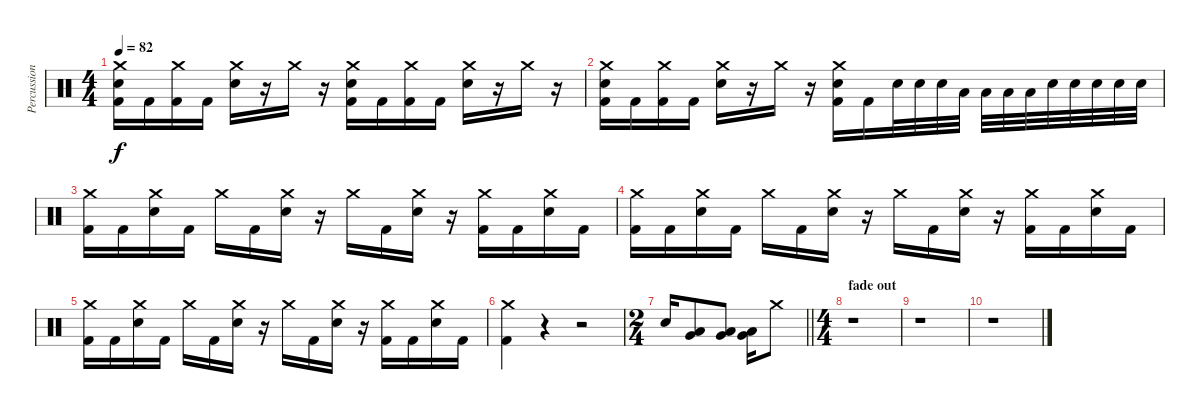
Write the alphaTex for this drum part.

\track ("Percussion" "Percussion") {instrument percussion}
\staff {score}
\articulation defaults
\ts (4 4)
\tempo 82
\clef neutral
\ks c
("Crash medium (hit)" "Electric Snare (hit)" "Kick (hit) 2").16{dy f} "Kick (hit) 2".16 ("Crash medium (hit)" "Kick (hit) 2").16 "Kick (hit) 2".16 ("Crash medium (hit)" "Electric Snare (hit)").16 r.16 "Crash medium (hit)".16 r.16 ("Crash medium (hit)" "Electric Snare (hit)" "Kick (hit) 2").16 "Kick (hit) 2".16 ("Crash medium (hit)" "Kick (hit) 2").16 "Kick (hit) 2".16 ("Crash medium (hit)" "Electric Snare (hit)").16 r.16 "Crash medium (hit)".16 r.16 |
("Crash medium (hit)" "Electric Snare (hit)" "Kick (hit) 2").16 "Kick (hit) 2".16 ("Crash medium (hit)" "Kick (hit) 2").16 "Kick (hit) 2".16 ("Crash medium (hit)" "Electric Snare (hit)").16 r.16 "Crash medium (hit)".16 r.16 ("Crash medium (hit)" "Electric Snare (hit)" "Kick (hit) 2").16 "Kick (hit) 2".16 "Electric Snare (hit)".32 "Electric Snare (hit)".32 "Electric Snare (hit)".32 "Low Tom (hit)".32 "Low Tom (hit)".32 "Low Tom (hit)".32 "Low Tom (hit)".32 "Electric Snare (hit)".32 "Electric Snare (hit)".32 "Electric Snare (hit)".32 "Electric Snare (hit)".32 "Electric Snare (hit)".32 |
("Crash medium (hit)" "Kick (hit) 2").16 "Kick (hit) 2".16 ("Crash medium (hit)" "Electric Snare (hit)").16 "Kick (hit) 2".16 "Crash medium (hit)".16 "Kick (hit) 2".16 ("Crash medium (hit)" "Electric Snare (hit)").16 r.16 "Crash medium (hit)".16 "Kick (hit) 2".16 ("Crash medium (hit)" "Electric Snare (hit)").16 r.16 ("Crash medium (hit)" "Kick (hit) 2").16 "Kick (hit) 2".16 ("Crash medium (hit)" "Electric Snare (hit)").16 "Kick (hit) 2".16 |
("Crash medium (hit)" "Kick (hit) 2").16 "Kick (hit) 2".16 ("Crash medium (hit)" "Electric Snare (hit)").16 "Kick (hit) 2".16 "Crash medium (hit)".16 "Kick (hit) 2".16 ("Crash medium (hit)" "Electric Snare (hit)").16 r.16 "Crash medium (hit)".16 "Kick (hit) 2".16 ("Crash medium (hit)" "Electric Snare (hit)").16 r.16 ("Crash medium (hit)" "Kick (hit) 2").16 "Kick (hit) 2".16 ("Crash medium (hit)" "Electric Snare (hit)").16 "Kick (hit) 2".16 |
("Crash medium (hit)" "Kick (hit) 2").16 "Kick (hit) 2".16 ("Crash medium (hit)" "Electric Snare (hit)").16 "Kick (hit) 2".16 "Crash medium (hit)".16 "Kick (hit) 2".16 ("Crash medium (hit)" "Electric Snare (hit)").16 r.16 "Crash medium (hit)".16 "Kick (hit) 2".16 ("Crash medium (hit)" "Electric Snare (hit)").16 r.16 ("Crash medium (hit)" "Kick (hit) 2").16 "Kick (hit) 2".16 ("Crash medium (hit)" "Electric Snare (hit)").16 "Kick (hit) 2".16 |
("Crash medium (hit)" "Kick (hit) 2").4 r.4 r.2 |
\ts (2 4)
\barLineRight lightlight "Electric Snare (hit)".16
("Low Floor Tom (hit)" "Very Low Tom (hit)").8 ("Low Floor Tom (hit)" "Very Low Tom (hit)").8 ("Low Floor Tom (hit)" "Very Low Tom (hit)").16 "Crash medium (hit)".8 |
\ts (4 4)
\section ("" "fade out")
r.1 |
r.1 |
r.1
